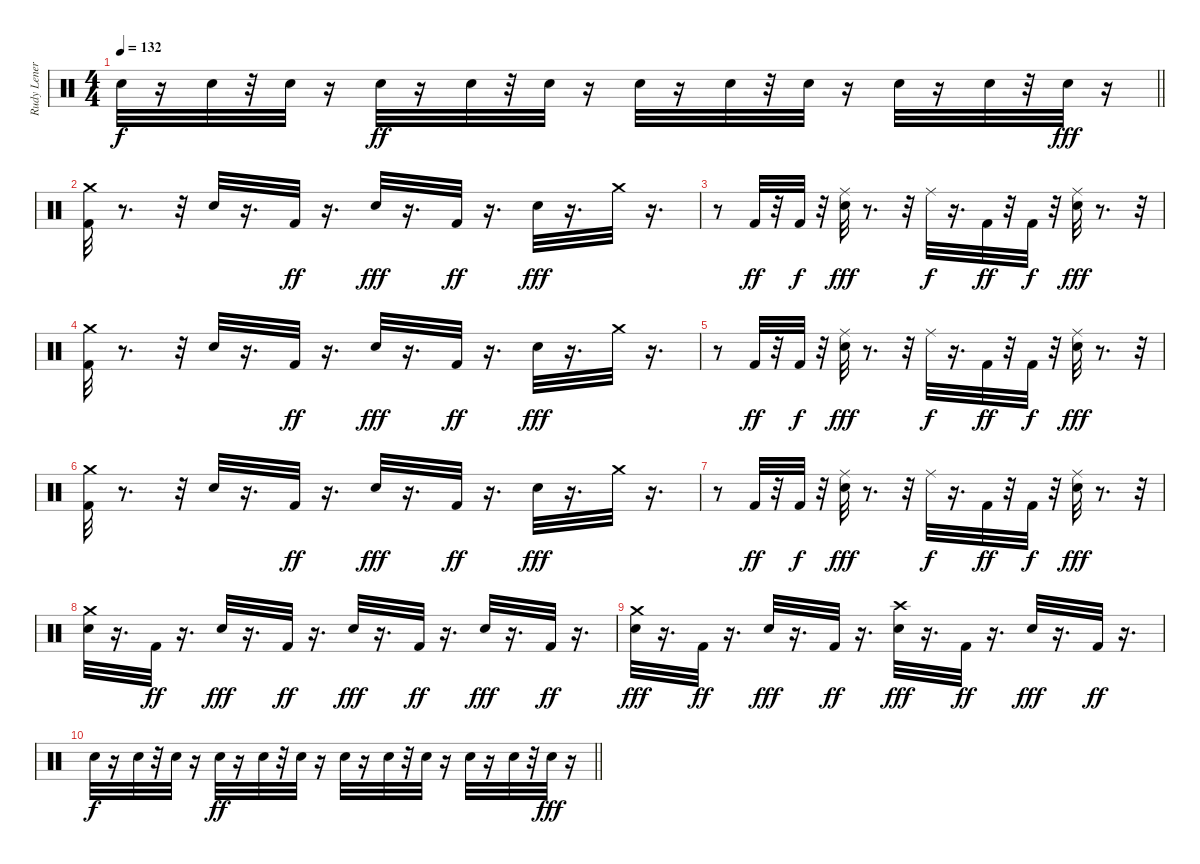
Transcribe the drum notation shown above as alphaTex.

\track ("Rudy Leners" "Rudy Lener") {instrument percussion}
\staff {score}
\articulation defaults
\ts (4 4)
\tempo 132
\clef neutral
\barLineRight lightlight
\ks c "Snare (hit) 2".32{dy f}
r.16 "Snare (hit) 2".32 r.32 "Snare (hit) 2".32 r.16 "Snare (hit) 2".32{dy ff} r.16 "Snare (hit) 2".32 r.32 "Snare (hit) 2".32 r.16 "Snare (hit) 2".32 r.16 "Snare (hit) 2".32 r.32 "Snare (hit) 2".32 r.16 "Snare (hit) 2".32 r.16 "Snare (hit) 2".32 r.32 "Snare (hit) 2".32{dy fff} r.16 |
("Kick (hit) 2" "Crash medium (hit)").32 r.8{d} r.32 "Snare (hit) 2".32 r.16{d} "Kick (hit) 2".32{dy ff} r.16{d} "Snare (hit) 2".32{dy fff} r.16{d} "Kick (hit) 2".32{dy ff} r.16{d} "Snare (hit) 2".32{dy fff} r.16{d} "Crash medium (hit)".32 r.16{d} |
r.8 "Kick (hit) 2".32{dy ff} r.32 "Kick (hit) 2".32{dy f} r.32 ("Ride (middle)" "Snare (hit) 2").32{dy fff} r.8{d} r.32 "Ride (middle)".32{dy f} r.16{d} "Kick (hit) 2".32{dy ff} r.32 "Kick (hit) 2".32{dy f} r.32 ("Ride (middle)" "Snare (hit) 2").32{dy fff} r.8{d} r.32 |
("Kick (hit) 2" "Crash medium (hit)").32 r.8{d} r.32 "Snare (hit) 2".32 r.16{d} "Kick (hit) 2".32{dy ff} r.16{d} "Snare (hit) 2".32{dy fff} r.16{d} "Kick (hit) 2".32{dy ff} r.16{d} "Snare (hit) 2".32{dy fff} r.16{d} "Crash medium (hit)".32 r.16{d} |
r.8 "Kick (hit) 2".32{dy ff} r.32 "Kick (hit) 2".32{dy f} r.32 ("Ride (middle)" "Snare (hit) 2").32{dy fff} r.8{d} r.32 "Ride (middle)".32{dy f} r.16{d} "Kick (hit) 2".32{dy ff} r.32 "Kick (hit) 2".32{dy f} r.32 ("Ride (middle)" "Snare (hit) 2").32{dy fff} r.8{d} r.32 |
("Kick (hit) 2" "Crash medium (hit)").32 r.8{d} r.32 "Snare (hit) 2".32 r.16{d} "Kick (hit) 2".32{dy ff} r.16{d} "Snare (hit) 2".32{dy fff} r.16{d} "Kick (hit) 2".32{dy ff} r.16{d} "Snare (hit) 2".32{dy fff} r.16{d} "Crash medium (hit)".32 r.16{d} |
r.8 "Kick (hit) 2".32{dy ff} r.32 "Kick (hit) 2".32{dy f} r.32 ("Ride (middle)" "Snare (hit) 2").32{dy fff} r.8{d} r.32 "Ride (middle)".32{dy f} r.16{d} "Kick (hit) 2".32{dy ff} r.32 "Kick (hit) 2".32{dy f} r.32 ("Ride (middle)" "Snare (hit) 2").32{dy fff} r.8{d} r.32 |
("Crash medium (hit)" "Snare (hit) 2").32{volume 16} r.16{d} "Kick (hit) 2".32{dy ff volume 16} r.16{d} "Snare (hit) 2".32{dy fff volume 15} r.16{d} "Kick (hit) 2".32{dy ff volume 15} r.16{d} "Snare (hit) 2".32{dy fff volume 15} r.16{d} "Kick (hit) 2".32{dy ff volume 14} r.16{d} "Snare (hit) 2".32{dy fff volume 14} r.16{d} "Kick (hit) 2".32{dy ff volume 14} r.16{d} |
("Snare (hit) 2" "Crash medium (hit)").32{dy fff volume 13} r.16{d} "Kick (hit) 2".32{dy ff volume 12} r.16{d} "Snare (hit) 2".32{dy fff volume 12} r.16{d} "Kick (hit) 2".32{dy ff volume 11} r.16{d} ("Crash high (hit)" "Snare (hit) 2").32{dy fff volume 11} r.16{d} "Kick (hit) 2".32{dy ff volume 10} r.16{d} "Snare (hit) 2".32{dy fff volume 9} r.16{d} "Kick (hit) 2".32{dy ff volume 8} r.16{d} |
\barLineRight lightlight "Snare (hit) 2".32{dy f volume 7}
r.16 "Snare (hit) 2".32{volume 7} r.32 "Snare (hit) 2".32{volume 6} r.16 "Snare (hit) 2".32{dy ff volume 6} r.16 "Snare (hit) 2".32{volume 5} r.32 "Snare (hit) 2".32{volume 5} r.16 "Snare (hit) 2".32{volume 4} r.16 "Snare (hit) 2".32{volume 4} r.32 "Snare (hit) 2".32{volume 2} r.16 "Snare (hit) 2".32{volume 2} r.16 "Snare (hit) 2".32{volume 1} r.32 "Snare (hit) 2".32{dy fff volume 0} r.16
